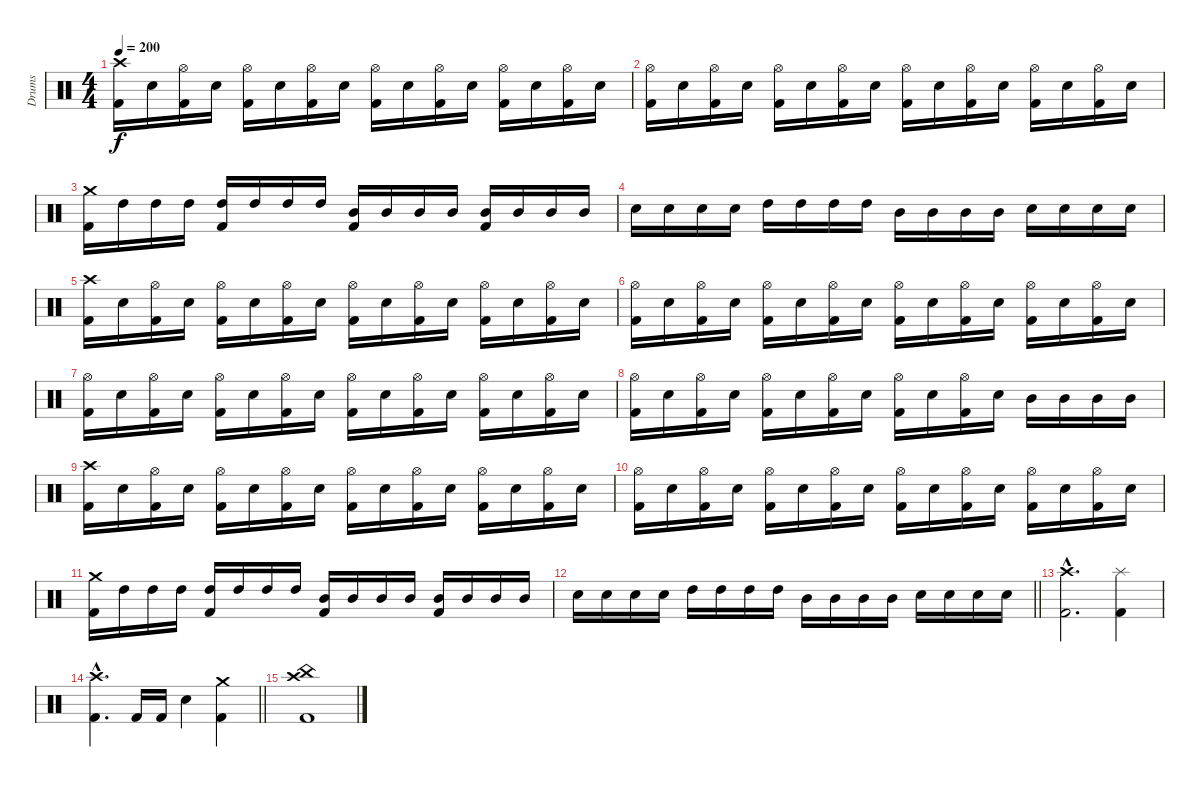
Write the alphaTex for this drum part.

\track ("Drums" "Drums") {instrument percussion}
\staff {score}
\articulation defaults
\ts (4 4)
\tempo 200
\clef neutral
\ks c
("Crash high (hit)" "Kick (hit) 2").16{dy f} "Electric Snare (hit)".16 ("Hi-Hat (open)" "Kick (hit) 2").16 "Electric Snare (hit)".16 ("Hi-Hat (open)" "Kick (hit) 2").16 "Electric Snare (hit)".16 ("Hi-Hat (open)" "Kick (hit) 2").16 "Electric Snare (hit)".16 ("Hi-Hat (open)" "Kick (hit) 2").16 "Electric Snare (hit)".16 ("Hi-Hat (open)" "Kick (hit) 2").16 "Electric Snare (hit)".16 ("Hi-Hat (open)" "Kick (hit) 2").16 "Electric Snare (hit)".16 ("Hi-Hat (open)" "Kick (hit) 2").16 "Electric Snare (hit)".16 |
("Hi-Hat (open)" "Kick (hit) 2").16 "Electric Snare (hit)".16 ("Hi-Hat (open)" "Kick (hit) 2").16 "Electric Snare (hit)".16 ("Hi-Hat (open)" "Kick (hit) 2").16 "Electric Snare (hit)".16 ("Hi-Hat (open)" "Kick (hit) 2").16 "Electric Snare (hit)".16 ("Hi-Hat (open)" "Kick (hit) 2").16 "Electric Snare (hit)".16 ("Hi-Hat (open)" "Kick (hit) 2").16 "Electric Snare (hit)".16 ("Hi-Hat (open)" "Kick (hit) 2").16 "Electric Snare (hit)".16 ("Hi-Hat (open)" "Kick (hit) 2").16 "Electric Snare (hit)".16 |
("Crash medium (hit)" "Kick (hit) 2").16 "High Tom (hit)".16 "High Tom (hit)".16 "High Tom (hit)".16 ("High Tom (hit)" "Kick (hit) 2").16 "High Tom (hit)".16 "High Tom (hit)".16 "High Tom (hit)".16 ("Mid Tom (hit)" "Kick (hit) 2").16 "Mid Tom (hit)".16 "Mid Tom (hit)".16 "Mid Tom (hit)".16 ("Mid Tom (hit)" "Kick (hit) 2").16 "Mid Tom (hit)".16 "Mid Tom (hit)".16 "Mid Tom (hit)".16 |
"Electric Snare (hit)".16 "Electric Snare (hit)".16 "Electric Snare (hit)".16 "Electric Snare (hit)".16 "High Tom (hit)".16 "High Tom (hit)".16 "High Tom (hit)".16 "High Tom (hit)".16 "Mid Tom (hit)".16 "Mid Tom (hit)".16 "Mid Tom (hit)".16 "Mid Tom (hit)".16 "Electric Snare (hit)".16 "Electric Snare (hit)".16 "Electric Snare (hit)".16 "Electric Snare (hit)".16 |
("Crash high (hit)" "Kick (hit) 2").16 "Electric Snare (hit)".16 ("Hi-Hat (open)" "Kick (hit) 2").16 "Electric Snare (hit)".16 ("Hi-Hat (open)" "Kick (hit) 2").16 "Electric Snare (hit)".16 ("Hi-Hat (open)" "Kick (hit) 2").16 "Electric Snare (hit)".16 ("Hi-Hat (open)" "Kick (hit) 2").16 "Electric Snare (hit)".16 ("Hi-Hat (open)" "Kick (hit) 2").16 "Electric Snare (hit)".16 ("Hi-Hat (open)" "Kick (hit) 2").16 "Electric Snare (hit)".16 ("Hi-Hat (open)" "Kick (hit) 2").16 "Electric Snare (hit)".16 |
("Hi-Hat (open)" "Kick (hit) 2").16 "Electric Snare (hit)".16 ("Hi-Hat (open)" "Kick (hit) 2").16 "Electric Snare (hit)".16 ("Hi-Hat (open)" "Kick (hit) 2").16 "Electric Snare (hit)".16 ("Hi-Hat (open)" "Kick (hit) 2").16 "Electric Snare (hit)".16 ("Hi-Hat (open)" "Kick (hit) 2").16 "Electric Snare (hit)".16 ("Hi-Hat (open)" "Kick (hit) 2").16 "Electric Snare (hit)".16 ("Hi-Hat (open)" "Kick (hit) 2").16 "Electric Snare (hit)".16 ("Hi-Hat (open)" "Kick (hit) 2").16 "Electric Snare (hit)".16 |
("Hi-Hat (open)" "Kick (hit) 2").16 "Electric Snare (hit)".16 ("Hi-Hat (open)" "Kick (hit) 2").16 "Electric Snare (hit)".16 ("Hi-Hat (open)" "Kick (hit) 2").16 "Electric Snare (hit)".16 ("Hi-Hat (open)" "Kick (hit) 2").16 "Electric Snare (hit)".16 ("Hi-Hat (open)" "Kick (hit) 2").16 "Electric Snare (hit)".16 ("Hi-Hat (open)" "Kick (hit) 2").16 "Electric Snare (hit)".16 ("Hi-Hat (open)" "Kick (hit) 2").16 "Electric Snare (hit)".16 ("Hi-Hat (open)" "Kick (hit) 2").16 "Electric Snare (hit)".16 |
("Hi-Hat (open)" "Kick (hit) 2").16 "Electric Snare (hit)".16 ("Hi-Hat (open)" "Kick (hit) 2").16 "Electric Snare (hit)".16 ("Hi-Hat (open)" "Kick (hit) 2").16 "Electric Snare (hit)".16 ("Hi-Hat (open)" "Kick (hit) 2").16 "Electric Snare (hit)".16 ("Hi-Hat (open)" "Kick (hit) 2").16 "Electric Snare (hit)".16 ("Hi-Hat (open)" "Kick (hit) 2").16 "Electric Snare (hit)".16 "Mid Tom (hit)".16 "Mid Tom (hit)".16 "Mid Tom (hit)".16 "Mid Tom (hit)".16 |
("Crash high (hit)" "Kick (hit) 2").16 "Electric Snare (hit)".16 ("Hi-Hat (open)" "Kick (hit) 2").16 "Electric Snare (hit)".16 ("Hi-Hat (open)" "Kick (hit) 2").16 "Electric Snare (hit)".16 ("Hi-Hat (open)" "Kick (hit) 2").16 "Electric Snare (hit)".16 ("Hi-Hat (open)" "Kick (hit) 2").16 "Electric Snare (hit)".16 ("Hi-Hat (open)" "Kick (hit) 2").16 "Electric Snare (hit)".16 ("Hi-Hat (open)" "Kick (hit) 2").16 "Electric Snare (hit)".16 ("Hi-Hat (open)" "Kick (hit) 2").16 "Electric Snare (hit)".16 |
("Hi-Hat (open)" "Kick (hit) 2").16 "Electric Snare (hit)".16 ("Hi-Hat (open)" "Kick (hit) 2").16 "Electric Snare (hit)".16 ("Hi-Hat (open)" "Kick (hit) 2").16 "Electric Snare (hit)".16 ("Hi-Hat (open)" "Kick (hit) 2").16 "Electric Snare (hit)".16 ("Hi-Hat (open)" "Kick (hit) 2").16 "Electric Snare (hit)".16 ("Hi-Hat (open)" "Kick (hit) 2").16 "Electric Snare (hit)".16 ("Hi-Hat (open)" "Kick (hit) 2").16 "Electric Snare (hit)".16 ("Hi-Hat (open)" "Kick (hit) 2").16 "Electric Snare (hit)".16 |
("Crash medium (hit)" "Kick (hit) 2").16 "High Tom (hit)".16 "High Tom (hit)".16 "High Tom (hit)".16 ("High Tom (hit)" "Kick (hit) 2").16 "High Tom (hit)".16 "High Tom (hit)".16 "High Tom (hit)".16 ("Mid Tom (hit)" "Kick (hit) 2").16 "Mid Tom (hit)".16 "Mid Tom (hit)".16 "Mid Tom (hit)".16 ("Mid Tom (hit)" "Kick (hit) 2").16 "Mid Tom (hit)".16 "Mid Tom (hit)".16 "Mid Tom (hit)".16 |
\barLineRight lightlight "Electric Snare (hit)".16 "Electric Snare (hit)".16 "Electric Snare (hit)".16 "Electric Snare (hit)".16 "High Tom (hit)".16 "High Tom (hit)".16 "High Tom (hit)".16 "High Tom (hit)".16 "Mid Tom (hit)".16 "Mid Tom (hit)".16 "Mid Tom (hit)".16 "Mid Tom (hit)".16 "Electric Snare (hit)".16 "Electric Snare (hit)".16 "Electric Snare (hit)".16 "Electric Snare (hit)".16
|
\section ("" "")
("Crash high (hit)"{hac} "Kick (hit) 2"{hac}).2{d} ("Splash (hit)" "Kick (hit) 2").4 |
\barLineRight lightlight
("Crash high (hit)"{hac} "Kick (hit) 2"{hac}).4{d} "Kick (hit) 2".16 "Kick (hit) 2".16 "Electric Snare (hit)".4 ("Crash medium (hit)" "Kick (hit) 2").4 |
("Crash high (hit)" "China (hit)" "Kick (hit) 2").1
